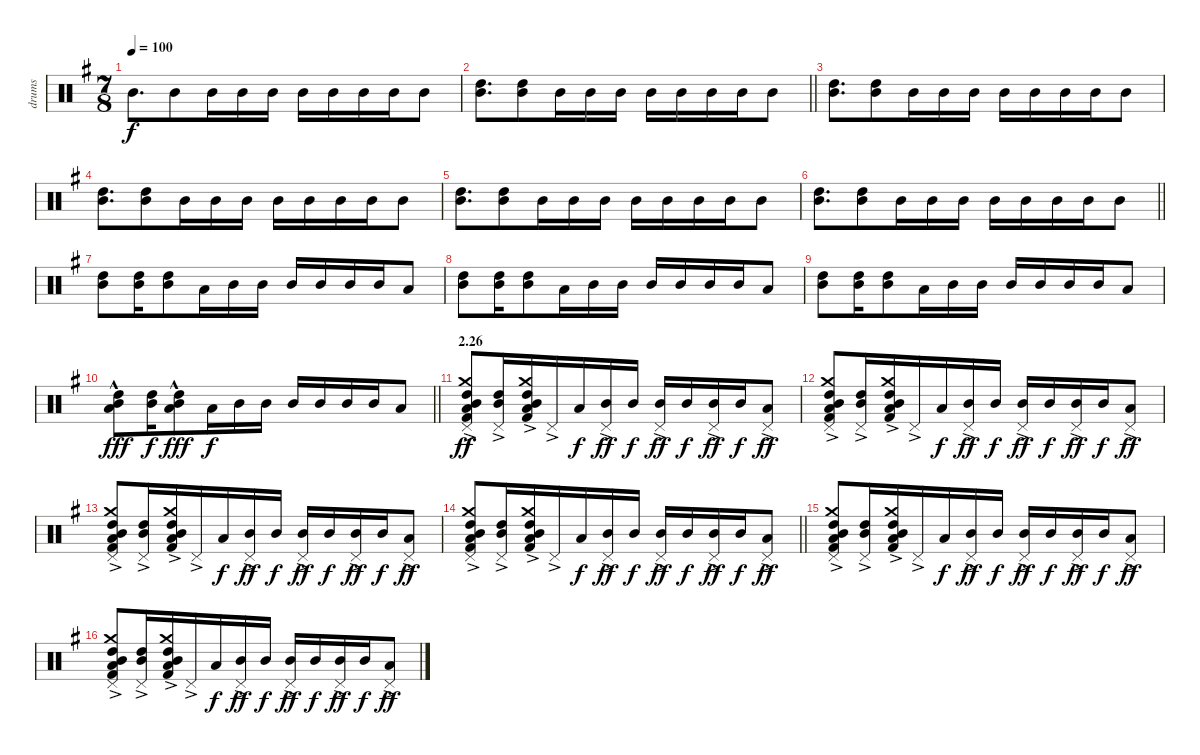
\track ("drums" "drums") {instrument percussion}
\staff {score}
\articulation defaults
\ts (7 8)
\tempo 100
\clef neutral
\ks g "Mid Tom (hit)".8{d dy f} "Mid Tom (hit)".8 "Mid Tom (hit)".16 "Mid Tom (hit)".16 "Mid Tom (hit)".16 "Mid Tom (hit)".16 "Mid Tom (hit)".16 "Mid Tom (hit)".16 "Mid Tom (hit)".16 "Mid Tom (hit)".8
|
\barLineRight lightlight
("High Tom (hit)" "Mid Tom (hit)").8{d} ("High Tom (hit)" "Mid Tom (hit)").8 "Mid Tom (hit)".16 "Mid Tom (hit)".16 "Mid Tom (hit)".16 "Mid Tom (hit)".16 "Mid Tom (hit)".16 "Mid Tom (hit)".16 "Mid Tom (hit)".16 "Mid Tom (hit)".8 |
("High Tom (hit)" "Mid Tom (hit)").8{d} ("High Tom (hit)" "Mid Tom (hit)").8 "Mid Tom (hit)".16 "Mid Tom (hit)".16 "Mid Tom (hit)".16 "Mid Tom (hit)".16 "Mid Tom (hit)".16 "Mid Tom (hit)".16 "Mid Tom (hit)".16 "Mid Tom (hit)".8 |
("High Tom (hit)" "Mid Tom (hit)").8{d} ("High Tom (hit)" "Mid Tom (hit)").8 "Mid Tom (hit)".16 "Mid Tom (hit)".16 "Mid Tom (hit)".16 "Mid Tom (hit)".16 "Mid Tom (hit)".16 "Mid Tom (hit)".16 "Mid Tom (hit)".16 "Mid Tom (hit)".8 |
("High Tom (hit)" "Mid Tom (hit)").8{d} ("High Tom (hit)" "Mid Tom (hit)").8 "Mid Tom (hit)".16 "Mid Tom (hit)".16 "Mid Tom (hit)".16 "Mid Tom (hit)".16 "Mid Tom (hit)".16 "Mid Tom (hit)".16 "Mid Tom (hit)".16 "Mid Tom (hit)".8 |
\barLineRight lightlight
("High Tom (hit)" "Mid Tom (hit)").8{d} ("High Tom (hit)" "Mid Tom (hit)").8 "Mid Tom (hit)".16 "Mid Tom (hit)".16 "Mid Tom (hit)".16 "Mid Tom (hit)".16 "Mid Tom (hit)".16 "Mid Tom (hit)".16 "Mid Tom (hit)".16 "Mid Tom (hit)".8 |
("High Tom (hit)" "Mid Tom (hit)").8 ("High Tom (hit)" "Mid Tom (hit)").16 ("High Tom (hit)" "Mid Tom (hit)").8 "Low Tom (hit)".16 "Mid Tom (hit)".16 "Mid Tom (hit)".16 "Mid Tom (hit)".16 "Mid Tom (hit)".16 "Mid Tom (hit)".16 "Mid Tom (hit)".16 "Low Tom (hit)".8 |
("High Tom (hit)" "Mid Tom (hit)").8 ("High Tom (hit)" "Mid Tom (hit)").16 ("High Tom (hit)" "Mid Tom (hit)").8 "Low Tom (hit)".16 "Mid Tom (hit)".16 "Mid Tom (hit)".16 "Mid Tom (hit)".16 "Mid Tom (hit)".16 "Mid Tom (hit)".16 "Mid Tom (hit)".16 "Low Tom (hit)".8 |
("High Tom (hit)" "Mid Tom (hit)").8 ("High Tom (hit)" "Mid Tom (hit)").16 ("High Tom (hit)" "Mid Tom (hit)").8 "Low Tom (hit)".16 "Mid Tom (hit)".16 "Mid Tom (hit)".16 "Mid Tom (hit)".16 "Mid Tom (hit)".16 "Mid Tom (hit)".16 "Mid Tom (hit)".16 "Low Tom (hit)".8 |
\barLineRight lightlight
("High Tom (hit)" "Mid Tom (hit)"{hac} "Low Tom (hit)"{hac}).8{dy fff} ("High Tom (hit)" "Mid Tom (hit)").16{dy f} ("High Tom (hit)" "Mid Tom (hit)"{hac} "Low Tom (hit)"{hac}).8{dy fff} "Low Tom (hit)".16{dy f} "Mid Tom (hit)".16 "Mid Tom (hit)".16 "Mid Tom (hit)".16 "Mid Tom (hit)".16 "Mid Tom (hit)".16 "Mid Tom (hit)".16 "Low Tom (hit)".8 |
\section ("" "2.26")
("Crash medium (hit)" "Pedal Hi-Hat (hit)"{ac} "High Tom (hit)" "Mid Tom (hit)"{ac} "Low Tom (hit)"{ac} "Kick (hit) 2"{ac}).8{dy ff} ("Pedal Hi-Hat (hit)"{ac} "High Tom (hit)" "Mid Tom (hit)").16 ("Crash medium (hit)"{ac} "High Tom (hit)" "Mid Tom (hit)"{ac} "Low Tom (hit)"{ac} "Kick (hit) 2"{ac}).16 "Pedal Hi-Hat (hit)"{ac}.16 "Low Tom (hit)".16{dy f} ("Pedal Hi-Hat (hit)"{ac} "Mid Tom (hit)").16{dy ff} "Mid Tom (hit)".16{dy f} ("Pedal Hi-Hat (hit)"{ac} "Mid Tom (hit)").16{dy ff} "Mid Tom (hit)".16{dy f} ("Pedal Hi-Hat (hit)"{ac} "Mid Tom (hit)").16{dy ff} "Mid Tom (hit)".16{dy f} ("Pedal Hi-Hat (hit)"{ac} "Low Tom (hit)").8{dy ff} |
("Crash medium (hit)" "Pedal Hi-Hat (hit)"{ac} "High Tom (hit)" "Mid Tom (hit)"{ac} "Low Tom (hit)"{ac} "Kick (hit) 2"{ac}).8 ("Pedal Hi-Hat (hit)"{ac} "High Tom (hit)" "Mid Tom (hit)").16 ("Crash medium (hit)"{ac} "High Tom (hit)" "Mid Tom (hit)"{ac} "Low Tom (hit)"{ac} "Kick (hit) 2"{ac}).16 "Pedal Hi-Hat (hit)"{ac}.16 "Low Tom (hit)".16{dy f} ("Pedal Hi-Hat (hit)"{ac} "Mid Tom (hit)").16{dy ff} "Mid Tom (hit)".16{dy f} ("Pedal Hi-Hat (hit)"{ac} "Mid Tom (hit)").16{dy ff} "Mid Tom (hit)".16{dy f} ("Pedal Hi-Hat (hit)"{ac} "Mid Tom (hit)").16{dy ff} "Mid Tom (hit)".16{dy f} ("Pedal Hi-Hat (hit)"{ac} "Low Tom (hit)").8{dy ff} |
("Crash medium (hit)" "Pedal Hi-Hat (hit)"{ac} "High Tom (hit)" "Mid Tom (hit)"{ac} "Low Tom (hit)"{ac} "Kick (hit) 2"{ac}).8 ("Pedal Hi-Hat (hit)"{ac} "High Tom (hit)" "Mid Tom (hit)").16 ("Crash medium (hit)"{ac} "High Tom (hit)" "Mid Tom (hit)"{ac} "Low Tom (hit)"{ac} "Kick (hit) 2"{ac}).16 "Pedal Hi-Hat (hit)"{ac}.16 "Low Tom (hit)".16{dy f} ("Pedal Hi-Hat (hit)"{ac} "Mid Tom (hit)").16{dy ff} "Mid Tom (hit)".16{dy f} ("Pedal Hi-Hat (hit)"{ac} "Mid Tom (hit)").16{dy ff} "Mid Tom (hit)".16{dy f} ("Pedal Hi-Hat (hit)"{ac} "Mid Tom (hit)").16{dy ff} "Mid Tom (hit)".16{dy f} ("Pedal Hi-Hat (hit)"{ac} "Low Tom (hit)").8{dy ff} |
\barLineRight lightlight
("Crash medium (hit)" "Pedal Hi-Hat (hit)"{ac} "High Tom (hit)" "Mid Tom (hit)"{ac} "Low Tom (hit)"{ac} "Kick (hit) 2"{ac}).8 ("Pedal Hi-Hat (hit)"{ac} "High Tom (hit)" "Mid Tom (hit)").16 ("Crash medium (hit)"{ac} "High Tom (hit)" "Mid Tom (hit)"{ac} "Low Tom (hit)"{ac} "Kick (hit) 2"{ac}).16 "Pedal Hi-Hat (hit)"{ac}.16 "Low Tom (hit)".16{dy f} ("Pedal Hi-Hat (hit)"{ac} "Mid Tom (hit)").16{dy ff} "Mid Tom (hit)".16{dy f} ("Pedal Hi-Hat (hit)"{ac} "Mid Tom (hit)").16{dy ff} "Mid Tom (hit)".16{dy f} ("Pedal Hi-Hat (hit)"{ac} "Mid Tom (hit)").16{dy ff} "Mid Tom (hit)".16{dy f} ("Pedal Hi-Hat (hit)"{ac} "Low Tom (hit)").8{dy ff} |
("Crash medium (hit)" "Pedal Hi-Hat (hit)"{ac} "High Tom (hit)" "Mid Tom (hit)"{ac} "Low Tom (hit)"{ac} "Kick (hit) 2"{ac}).8 ("Pedal Hi-Hat (hit)"{ac} "High Tom (hit)" "Mid Tom (hit)").16 ("Crash medium (hit)"{ac} "High Tom (hit)" "Mid Tom (hit)"{ac} "Low Tom (hit)"{ac} "Kick (hit) 2"{ac}).16 "Pedal Hi-Hat (hit)"{ac}.16 "Low Tom (hit)".16{dy f} ("Pedal Hi-Hat (hit)"{ac} "Mid Tom (hit)").16{dy ff} "Mid Tom (hit)".16{dy f} ("Pedal Hi-Hat (hit)"{ac} "Mid Tom (hit)").16{dy ff} "Mid Tom (hit)".16{dy f} ("Pedal Hi-Hat (hit)"{ac} "Mid Tom (hit)").16{dy ff} "Mid Tom (hit)".16{dy f} ("Pedal Hi-Hat (hit)"{ac} "Low Tom (hit)").8{dy ff} |
("Crash medium (hit)" "Pedal Hi-Hat (hit)"{ac} "High Tom (hit)" "Mid Tom (hit)"{ac} "Low Tom (hit)"{ac} "Kick (hit) 2"{ac}).8 ("Pedal Hi-Hat (hit)"{ac} "High Tom (hit)" "Mid Tom (hit)").16 ("Crash medium (hit)"{ac} "High Tom (hit)" "Mid Tom (hit)"{ac} "Low Tom (hit)"{ac} "Kick (hit) 2"{ac}).16 "Pedal Hi-Hat (hit)"{ac}.16 "Low Tom (hit)".16{dy f} ("Pedal Hi-Hat (hit)"{ac} "Mid Tom (hit)").16{dy ff} "Mid Tom (hit)".16{dy f} ("Pedal Hi-Hat (hit)"{ac} "Mid Tom (hit)").16{dy ff} "Mid Tom (hit)".16{dy f} ("Pedal Hi-Hat (hit)"{ac} "Mid Tom (hit)").16{dy ff} "Mid Tom (hit)".16{dy f} ("Pedal Hi-Hat (hit)"{ac} "Low Tom (hit)").8{dy ff}
